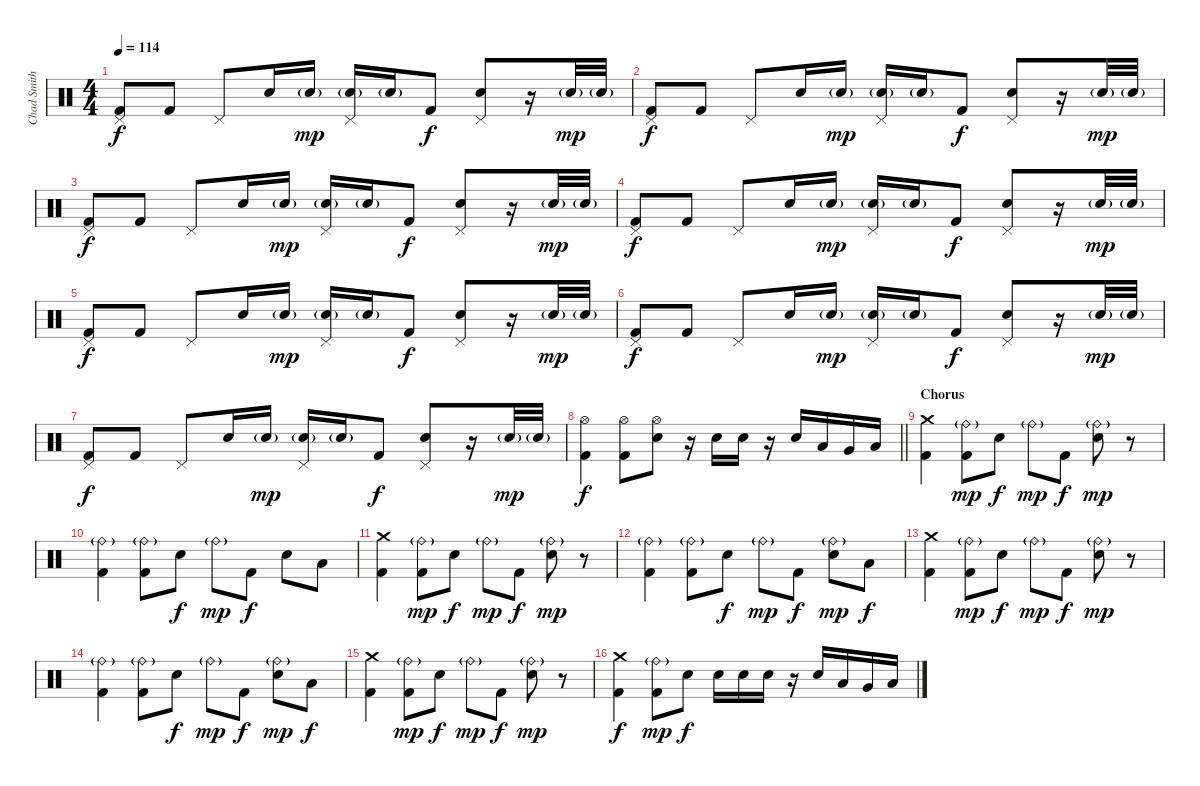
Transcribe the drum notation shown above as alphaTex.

\track ("Chad Smith" "Chad Smith") {instrument percussion}
\staff {score}
\articulation defaults
\ts (4 4)
\tempo 114
\clef neutral
\ks c
("Pedal Hi-Hat (hit)" "Kick (hit) 2").8{dy f} "Kick (hit) 2".8 "Pedal Hi-Hat (hit)".8 "Snare (hit) 2".16 "Snare (hit) 2"{g}.16{dy mp} ("Pedal Hi-Hat (hit)" "Snare (hit) 2"{g}).16 "Snare (hit) 2"{g}.16 "Kick (hit) 2".8{dy f} ("Pedal Hi-Hat (hit)" "Snare (hit) 2").8 r.16 "Snare (hit) 2"{g}.32{dy mp} "Snare (hit) 2"{g}.32 |
("Pedal Hi-Hat (hit)" "Kick (hit) 2").8{dy f} "Kick (hit) 2".8 "Pedal Hi-Hat (hit)".8 "Snare (hit) 2".16 "Snare (hit) 2"{g}.16{dy mp} ("Pedal Hi-Hat (hit)" "Snare (hit) 2"{g}).16 "Snare (hit) 2"{g}.16 "Kick (hit) 2".8{dy f} ("Pedal Hi-Hat (hit)" "Snare (hit) 2").8 r.16 "Snare (hit) 2"{g}.32{dy mp} "Snare (hit) 2"{g}.32 |
("Pedal Hi-Hat (hit)" "Kick (hit) 2").8{dy f} "Kick (hit) 2".8 "Pedal Hi-Hat (hit)".8 "Snare (hit) 2".16 "Snare (hit) 2"{g}.16{dy mp} ("Pedal Hi-Hat (hit)" "Snare (hit) 2"{g}).16 "Snare (hit) 2"{g}.16 "Kick (hit) 2".8{dy f} ("Pedal Hi-Hat (hit)" "Snare (hit) 2").8 r.16 "Snare (hit) 2"{g}.32{dy mp} "Snare (hit) 2"{g}.32 |
("Pedal Hi-Hat (hit)" "Kick (hit) 2").8{dy f} "Kick (hit) 2".8 "Pedal Hi-Hat (hit)".8 "Snare (hit) 2".16 "Snare (hit) 2"{g}.16{dy mp} ("Pedal Hi-Hat (hit)" "Snare (hit) 2"{g}).16 "Snare (hit) 2"{g}.16 "Kick (hit) 2".8{dy f} ("Pedal Hi-Hat (hit)" "Snare (hit) 2").8 r.16 "Snare (hit) 2"{g}.32{dy mp} "Snare (hit) 2"{g}.32 |
("Pedal Hi-Hat (hit)" "Kick (hit) 2").8{dy f} "Kick (hit) 2".8 "Pedal Hi-Hat (hit)".8 "Snare (hit) 2".16 "Snare (hit) 2"{g}.16{dy mp} ("Pedal Hi-Hat (hit)" "Snare (hit) 2"{g}).16 "Snare (hit) 2"{g}.16 "Kick (hit) 2".8{dy f} ("Pedal Hi-Hat (hit)" "Snare (hit) 2").8 r.16 "Snare (hit) 2"{g}.32{dy mp} "Snare (hit) 2"{g}.32 |
("Pedal Hi-Hat (hit)" "Kick (hit) 2").8{dy f} "Kick (hit) 2".8 "Pedal Hi-Hat (hit)".8 "Snare (hit) 2".16 "Snare (hit) 2"{g}.16{dy mp} ("Pedal Hi-Hat (hit)" "Snare (hit) 2"{g}).16 "Snare (hit) 2"{g}.16 "Kick (hit) 2".8{dy f} ("Pedal Hi-Hat (hit)" "Snare (hit) 2").8 r.16 "Snare (hit) 2"{g}.32{dy mp} "Snare (hit) 2"{g}.32 |
("Pedal Hi-Hat (hit)" "Kick (hit) 2").8{dy f} "Kick (hit) 2".8 "Pedal Hi-Hat (hit)".8 "Snare (hit) 2".16 "Snare (hit) 2"{g}.16{dy mp} ("Pedal Hi-Hat (hit)" "Snare (hit) 2"{g}).16 "Snare (hit) 2"{g}.16 "Kick (hit) 2".8{dy f} ("Pedal Hi-Hat (hit)" "Snare (hit) 2").8 r.16 "Snare (hit) 2"{g}.32{dy mp} "Snare (hit) 2"{g}.32 |
\barLineRight lightlight
("Hi-Hat (open)" "Kick (hit) 2").4{dy f} ("Hi-Hat (open)" "Kick (hit) 2").8 ("Hi-Hat (open)" "Snare (hit) 2").8 r.16 "Snare (hit) 2".16 "Snare (hit) 2".16 r.16 "Snare (hit) 2".16 "Low Tom (hit)".16 "Very Low Tom (hit)".16 "Low Floor Tom (hit)".16 |
\section ("" "Chorus")
("Crash medium (hit)" "Kick (hit) 2").4 ("Ride (bell)"{g} "Kick (hit) 2").8{dy mp} "Snare (hit) 2".8{dy f} "Ride (bell)"{g}.8{dy mp} "Kick (hit) 2".8{dy f} ("Ride (bell)"{g} "Snare (hit) 2").8{dy mp} r.8 |
("Ride (bell)"{g} "Kick (hit) 2").4 ("Ride (bell)"{g} "Kick (hit) 2").8 "Snare (hit) 2".8{dy f} "Ride (bell)"{g}.8{dy mp} "Kick (hit) 2".8{dy f} "Snare (hit) 2".8 "Low Floor Tom (hit)".8 |
("Crash medium (hit)" "Kick (hit) 2").4 ("Ride (bell)"{g} "Kick (hit) 2").8{dy mp} "Snare (hit) 2".8{dy f} "Ride (bell)"{g}.8{dy mp} "Kick (hit) 2".8{dy f} ("Ride (bell)"{g} "Snare (hit) 2").8{dy mp} r.8 |
("Ride (bell)"{g} "Kick (hit) 2").4 ("Ride (bell)"{g} "Kick (hit) 2").8 "Snare (hit) 2".8{dy f} "Ride (bell)"{g}.8{dy mp} "Kick (hit) 2".8{dy f} ("Ride (bell)"{g} "Snare (hit) 2").8{dy mp} "Low Floor Tom (hit)".8{dy f} |
("Crash medium (hit)" "Kick (hit) 2").4 ("Ride (bell)"{g} "Kick (hit) 2").8{dy mp} "Snare (hit) 2".8{dy f} "Ride (bell)"{g}.8{dy mp} "Kick (hit) 2".8{dy f} ("Ride (bell)"{g} "Snare (hit) 2").8{dy mp} r.8 |
("Ride (bell)"{g} "Kick (hit) 2").4 ("Ride (bell)"{g} "Kick (hit) 2").8 "Snare (hit) 2".8{dy f} "Ride (bell)"{g}.8{dy mp} "Kick (hit) 2".8{dy f} ("Ride (bell)"{g} "Snare (hit) 2").8{dy mp} "Low Floor Tom (hit)".8{dy f} |
("Crash medium (hit)" "Kick (hit) 2").4 ("Ride (bell)"{g} "Kick (hit) 2").8{dy mp} "Snare (hit) 2".8{dy f} "Ride (bell)"{g}.8{dy mp} "Kick (hit) 2".8{dy f} ("Ride (bell)"{g} "Snare (hit) 2").8{dy mp} r.8 |
("Crash medium (hit)" "Kick (hit) 2").4{dy f} ("Ride (bell)"{g} "Kick (hit) 2").8{dy mp} "Snare (hit) 2".8{dy f} "Snare (hit) 2".16 "Snare (hit) 2".16 "Snare (hit) 2".16 r.16 "Snare (hit) 2".16 "Low Tom (hit)".16 "Very Low Tom (hit)".16 "Low Floor Tom (hit)".16
